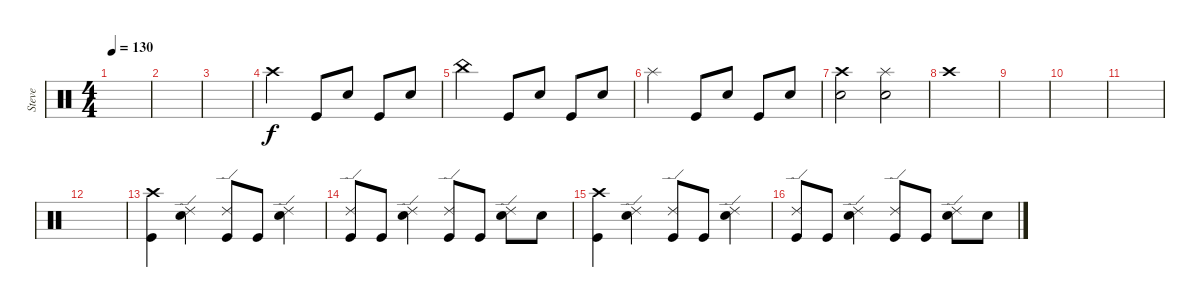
\track ("Steve" "Steve") {instrument percussion}
\staff {score}
\articulation defaults
\ts (4 4)
\tempo 130
\clef neutral
\ks c
|
|
|
"Crash high (hit)".2 "Kick (hit)".8 "Snare (hit) 2".8 "Kick (hit)".8 "Snare (hit) 2".8 |
"China (hit)".2 "Kick (hit)".8 "Snare (hit) 2".8 "Kick (hit)".8 "Snare (hit) 2".8 |
"Splash (hit)".2 "Kick (hit)".8 "Snare (hit) 2".8 "Kick (hit)".8 "Snare (hit) 2".8 |
("Crash high (hit)" "Snare (hit) 2").2 ("Splash (hit)" "Snare (hit) 2").2 |
"Crash high (hit)".1 |
|
|
|
|
("Crash high (hit)" "Kick (hit)").4 ("Ride (edge) 2" "Snare (hit) 2").4 ("Ride (edge) 2" "Kick (hit)").8 "Kick (hit)".8 ("Ride (edge) 2" "Snare (hit) 2").4 |
("Ride (edge) 2" "Kick (hit)").8 "Kick (hit)".8 ("Ride (edge) 2" "Snare (hit) 2").4 ("Ride (edge) 2" "Kick (hit)").8 "Kick (hit)".8 ("Ride (edge) 2" "Snare (hit) 2").8 "Snare (hit) 2".8 |
("Crash high (hit)" "Kick (hit)").4 ("Ride (edge) 2" "Snare (hit) 2").4 ("Ride (edge) 2" "Kick (hit)").8 "Kick (hit)".8 ("Ride (edge) 2" "Snare (hit) 2").4 |
("Ride (edge) 2" "Kick (hit)").8 "Kick (hit)".8 ("Ride (edge) 2" "Snare (hit) 2").4 ("Ride (edge) 2" "Kick (hit)").8 "Kick (hit)".8 ("Ride (edge) 2" "Snare (hit) 2").8 "Snare (hit) 2".8
